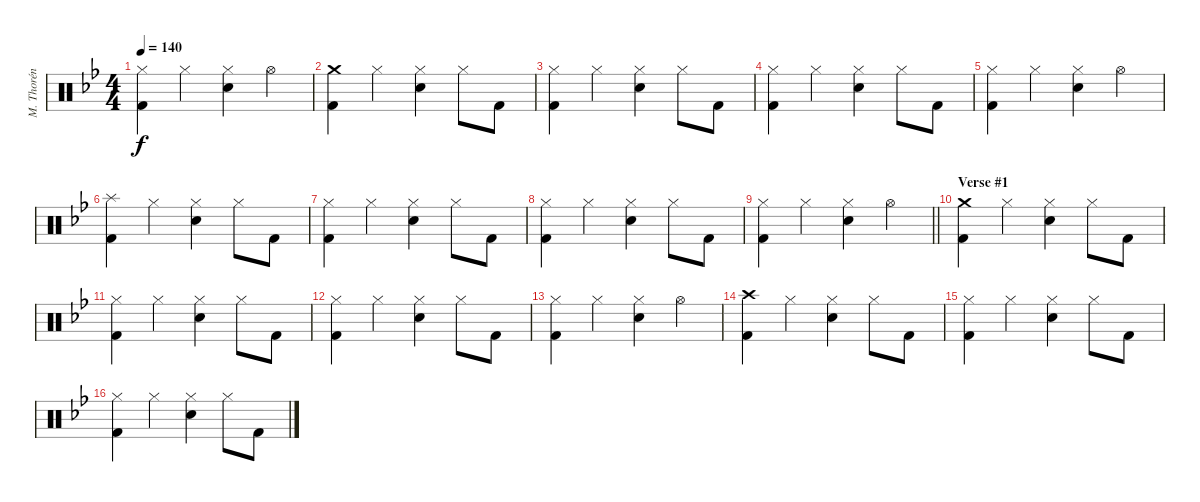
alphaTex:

\track ("M. Thorén (Drums)" "M. Thorén ") {instrument percussion}
\staff {score}
\articulation defaults
\ts (4 4)
\tempo 140
\clef neutral
\ks gminor
("Hi-Hat (closed)" "Kick (hit) 2").4{dy f} "Hi-Hat (closed)".4 ("Hi-Hat (closed)" "Electric Snare (hit)").4 "Hi-Hat (open)".4 |
("Crash medium (hit)" "Kick (hit) 2").4 "Hi-Hat (closed)".4 ("Hi-Hat (closed)" "Electric Snare (hit)").4 "Hi-Hat (closed)".8 "Kick (hit) 2".8 |
("Hi-Hat (closed)" "Kick (hit) 2").4 "Hi-Hat (closed)".4 ("Hi-Hat (closed)" "Electric Snare (hit)").4 "Hi-Hat (closed)".8 "Kick (hit) 2".8 |
("Hi-Hat (closed)" "Kick (hit) 2").4 "Hi-Hat (closed)".4 ("Hi-Hat (closed)" "Electric Snare (hit)").4 "Hi-Hat (closed)".8 "Kick (hit) 2".8 |
("Hi-Hat (closed)" "Kick (hit) 2").4 "Hi-Hat (closed)".4 ("Hi-Hat (closed)" "Electric Snare (hit)").4 "Hi-Hat (open)".4 |
("Splash (hit)" "Kick (hit) 2").4 "Hi-Hat (closed)".4 ("Hi-Hat (closed)" "Electric Snare (hit)").4 "Hi-Hat (closed)".8 "Kick (hit) 2".8 |
("Hi-Hat (closed)" "Kick (hit) 2").4 "Hi-Hat (closed)".4 ("Hi-Hat (closed)" "Electric Snare (hit)").4 "Hi-Hat (closed)".8 "Kick (hit) 2".8 |
("Hi-Hat (closed)" "Kick (hit) 2").4 "Hi-Hat (closed)".4 ("Hi-Hat (closed)" "Electric Snare (hit)").4 "Hi-Hat (closed)".8 "Kick (hit) 2".8 |
\barLineRight lightlight
("Hi-Hat (closed)" "Kick (hit) 2").4 "Hi-Hat (closed)".4 ("Hi-Hat (closed)" "Electric Snare (hit)").4 "Hi-Hat (open)".4 |
\section ("" "Verse #1")
("Crash medium (hit)" "Kick (hit) 2").4 "Hi-Hat (closed)".4 ("Hi-Hat (closed)" "Electric Snare (hit)").4 "Hi-Hat (closed)".8 "Kick (hit) 2".8 |
("Hi-Hat (closed)" "Kick (hit) 2").4 "Hi-Hat (closed)".4 ("Hi-Hat (closed)" "Electric Snare (hit)").4 "Hi-Hat (closed)".8 "Kick (hit) 2".8 |
("Hi-Hat (closed)" "Kick (hit) 2").4 "Hi-Hat (closed)".4 ("Hi-Hat (closed)" "Electric Snare (hit)").4 "Hi-Hat (closed)".8 "Kick (hit) 2".8 |
("Hi-Hat (closed)" "Kick (hit) 2").4 "Hi-Hat (closed)".4 ("Hi-Hat (closed)" "Electric Snare (hit)").4 "Hi-Hat (open)".4 |
("Crash high (hit)" "Kick (hit) 2").4 "Hi-Hat (closed)".4 ("Hi-Hat (closed)" "Electric Snare (hit)").4 "Hi-Hat (closed)".8 "Kick (hit) 2".8 |
("Hi-Hat (closed)" "Kick (hit) 2").4 "Hi-Hat (closed)".4 ("Hi-Hat (closed)" "Electric Snare (hit)").4 "Hi-Hat (closed)".8 "Kick (hit) 2".8 |
("Hi-Hat (closed)" "Kick (hit) 2").4 "Hi-Hat (closed)".4 ("Hi-Hat (closed)" "Electric Snare (hit)").4 "Hi-Hat (closed)".8 "Kick (hit) 2".8
